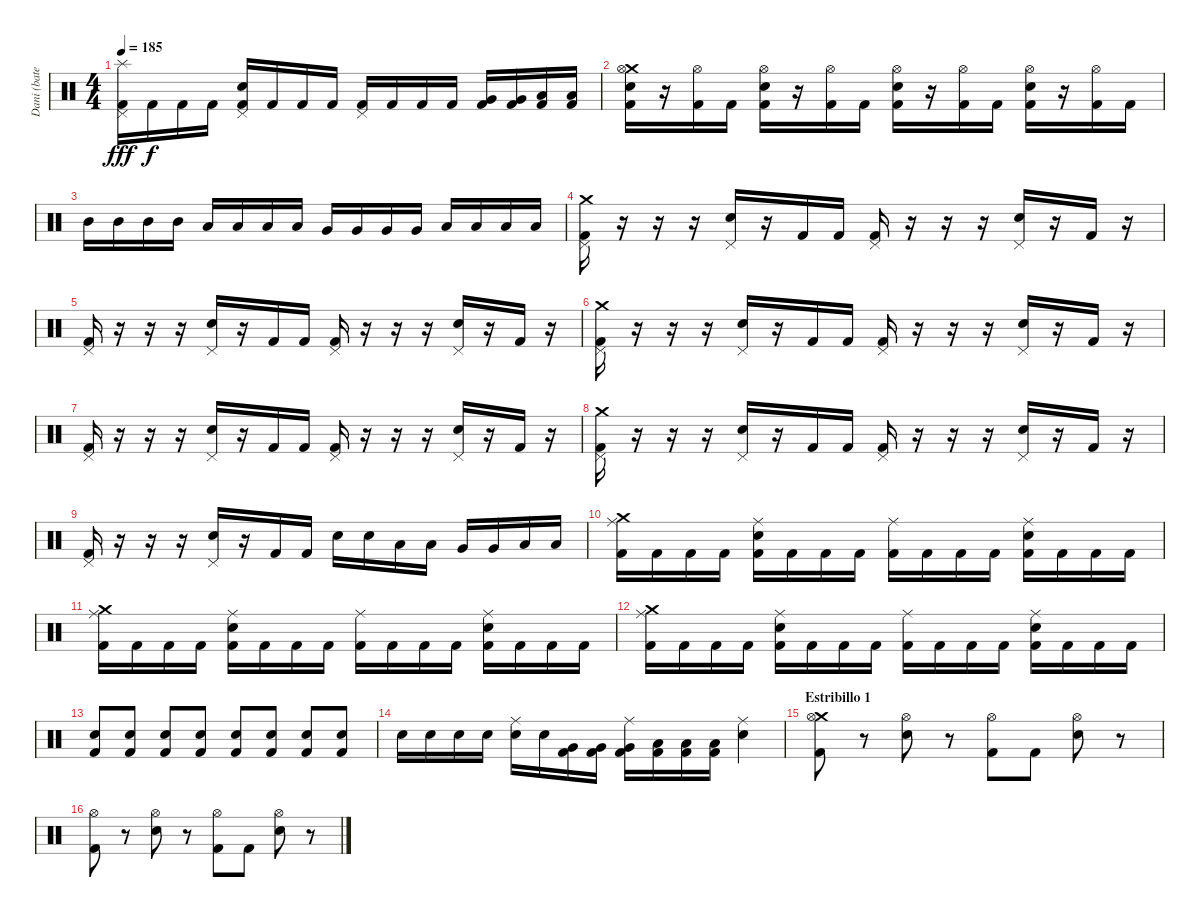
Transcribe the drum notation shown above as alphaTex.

\track ("Dani (batería)" "Dani (bate") {instrument percussion}
\staff {score}
\articulation defaults
\ts (4 4)
\tempo 185
\clef neutral
\ks c
("Splash (hit)" "Pedal Hi-Hat (hit)" "Kick (hit) 2").16{dy fff} "Kick (hit) 2".16{dy f} "Kick (hit) 2".16 "Kick (hit) 2".16 ("Pedal Hi-Hat (hit)" "Snare (hit) 2" "Kick (hit) 2").16 "Kick (hit) 2".16 "Kick (hit) 2".16 "Kick (hit) 2".16 ("Pedal Hi-Hat (hit)" "Kick (hit) 2").16 "Kick (hit) 2".16 "Kick (hit) 2".16 "Kick (hit) 2".16 ("Very Low Tom (hit)" "Kick (hit) 2").16 ("Very Low Tom (hit)" "Kick (hit) 2").16 ("Low Floor Tom (hit)" "Kick (hit) 2").16 ("Low Floor Tom (hit)" "Kick (hit) 2").16 |
("Crash medium (hit)" "Hi-Hat (open)" "Snare (hit) 2" "Kick (hit) 2").16 r.16 ("Hi-Hat (open)" "Kick (hit) 2").16 "Kick (hit) 2".16 ("Hi-Hat (open)" "Snare (hit) 2" "Kick (hit) 2").16 r.16 ("Hi-Hat (open)" "Kick (hit) 2").16 "Kick (hit) 2".16 ("Hi-Hat (open)" "Snare (hit) 2" "Kick (hit) 2").16 r.16 ("Hi-Hat (open)" "Kick (hit) 2").16 "Kick (hit) 2".16 ("Hi-Hat (open)" "Snare (hit) 2" "Kick (hit) 2").16 r.16 ("Hi-Hat (open)" "Kick (hit) 2").16 "Kick (hit) 2".16 |
"Mid Tom (hit)".16 "Mid Tom (hit)".16 "Mid Tom (hit)".16 "Mid Tom (hit)".16 "Low Tom (hit)".16 "Low Tom (hit)".16 "Low Tom (hit)".16 "Low Tom (hit)".16 "Very Low Tom (hit)".16 "Very Low Tom (hit)".16 "Very Low Tom (hit)".16 "Very Low Tom (hit)".16 "Low Floor Tom (hit)".16 "Low Floor Tom (hit)".16 "Low Floor Tom (hit)".16 "Low Floor Tom (hit)".16 |
("Crash medium (hit)" "Pedal Hi-Hat (hit)" "Kick (hit) 2").16 r.16 r.16 r.16 ("Pedal Hi-Hat (hit)" "Snare (hit) 2").16 r.16 "Kick (hit) 2".16 "Kick (hit) 2".16 ("Pedal Hi-Hat (hit)" "Kick (hit) 2").16 r.16 r.16 r.16 ("Pedal Hi-Hat (hit)" "Snare (hit) 2").16 r.16 "Kick (hit) 2".16 r.16 |
("Pedal Hi-Hat (hit)" "Kick (hit) 2").16 r.16 r.16 r.16 ("Pedal Hi-Hat (hit)" "Snare (hit) 2").16 r.16 "Kick (hit) 2".16 "Kick (hit) 2".16 ("Pedal Hi-Hat (hit)" "Kick (hit) 2").16 r.16 r.16 r.16 ("Pedal Hi-Hat (hit)" "Snare (hit) 2").16 r.16 "Kick (hit) 2".16 r.16 |
("Crash medium (hit)" "Pedal Hi-Hat (hit)" "Kick (hit) 2").16 r.16 r.16 r.16 ("Pedal Hi-Hat (hit)" "Snare (hit) 2").16 r.16 "Kick (hit) 2".16 "Kick (hit) 2".16 ("Pedal Hi-Hat (hit)" "Kick (hit) 2").16 r.16 r.16 r.16 ("Pedal Hi-Hat (hit)" "Snare (hit) 2").16 r.16 "Kick (hit) 2".16 r.16 |
("Pedal Hi-Hat (hit)" "Kick (hit) 2").16 r.16 r.16 r.16 ("Pedal Hi-Hat (hit)" "Snare (hit) 2").16 r.16 "Kick (hit) 2".16 "Kick (hit) 2".16 ("Pedal Hi-Hat (hit)" "Kick (hit) 2").16 r.16 r.16 r.16 ("Pedal Hi-Hat (hit)" "Snare (hit) 2").16 r.16 "Kick (hit) 2".16 r.16 |
("Crash medium (hit)" "Pedal Hi-Hat (hit)" "Kick (hit) 2").16 r.16 r.16 r.16 ("Pedal Hi-Hat (hit)" "Snare (hit) 2").16 r.16 "Kick (hit) 2".16 "Kick (hit) 2".16 ("Pedal Hi-Hat (hit)" "Kick (hit) 2").16 r.16 r.16 r.16 ("Pedal Hi-Hat (hit)" "Snare (hit) 2").16 r.16 "Kick (hit) 2".16 r.16 |
("Pedal Hi-Hat (hit)" "Kick (hit) 2").16 r.16 r.16 r.16 ("Pedal Hi-Hat (hit)" "Snare (hit) 2").16 r.16 "Kick (hit) 2".16 "Kick (hit) 2".16 "Snare (hit) 2".16 "Snare (hit) 2".16 "Low Tom (hit)".16 "Low Tom (hit)".16 "Very Low Tom (hit)".16 "Very Low Tom (hit)".16 "Low Floor Tom (hit)".16 "Low Floor Tom (hit)".16 |
("Crash medium (hit)" "Ride (middle)" "Kick (hit) 2").16 "Kick (hit) 2".16 "Kick (hit) 2".16 "Kick (hit) 2".16 ("Ride (middle)" "Snare (hit) 2" "Kick (hit) 2").16 "Kick (hit) 2".16 "Kick (hit) 2".16 "Kick (hit) 2".16 ("Ride (middle)" "Kick (hit) 2").16 "Kick (hit) 2".16 "Kick (hit) 2".16 "Kick (hit) 2".16 ("Ride (middle)" "Snare (hit) 2" "Kick (hit) 2").16 "Kick (hit) 2".16 "Kick (hit) 2".16 "Kick (hit) 2".16 |
("Crash medium (hit)" "Ride (middle)" "Kick (hit) 2").16 "Kick (hit) 2".16 "Kick (hit) 2".16 "Kick (hit) 2".16 ("Ride (middle)" "Snare (hit) 2" "Kick (hit) 2").16 "Kick (hit) 2".16 "Kick (hit) 2".16 "Kick (hit) 2".16 ("Ride (middle)" "Kick (hit) 2").16 "Kick (hit) 2".16 "Kick (hit) 2".16 "Kick (hit) 2".16 ("Ride (middle)" "Snare (hit) 2" "Kick (hit) 2").16 "Kick (hit) 2".16 "Kick (hit) 2".16 "Kick (hit) 2".16 |
("Crash medium (hit)" "Ride (middle)" "Kick (hit) 2").16 "Kick (hit) 2".16 "Kick (hit) 2".16 "Kick (hit) 2".16 ("Ride (middle)" "Snare (hit) 2" "Kick (hit) 2").16 "Kick (hit) 2".16 "Kick (hit) 2".16 "Kick (hit) 2".16 ("Ride (middle)" "Kick (hit) 2").16 "Kick (hit) 2".16 "Kick (hit) 2".16 "Kick (hit) 2".16 ("Ride (middle)" "Snare (hit) 2" "Kick (hit) 2").16 "Kick (hit) 2".16 "Kick (hit) 2".16 "Kick (hit) 2".16 |
("Snare (hit) 2" "Kick (hit) 2").8 ("Snare (hit) 2" "Kick (hit) 2").8 ("Snare (hit) 2" "Kick (hit) 2").8 ("Snare (hit) 2" "Kick (hit) 2").8 ("Snare (hit) 2" "Kick (hit) 2").8 ("Snare (hit) 2" "Kick (hit) 2").8 ("Snare (hit) 2" "Kick (hit) 2").8 ("Snare (hit) 2" "Kick (hit) 2").8 |
"Snare (hit) 2".16 "Snare (hit) 2".16 "Snare (hit) 2".16 "Snare (hit) 2".16 ("Ride (middle)" "Snare (hit) 2").16 "Snare (hit) 2".16 ("Very Low Tom (hit)" "Kick (hit) 2").16 ("Very Low Tom (hit)" "Kick (hit) 2").16 ("Ride (middle)" "Very Low Tom (hit)" "Kick (hit) 2").16 ("Low Floor Tom (hit)" "Kick (hit) 2").16 ("Low Floor Tom (hit)" "Kick (hit) 2").16 ("Low Floor Tom (hit)" "Kick (hit) 2").16 ("Ride (middle)" "Snare (hit) 2").4 |
\section ("" "Estribillo 1")
("Crash medium (hit)" "Hi-Hat (open)" "Kick (hit) 2").8 r.8 ("Hi-Hat (open)" "Snare (hit) 2").8 r.8 ("Hi-Hat (open)" "Kick (hit) 2").8 "Kick (hit) 2".8 ("Hi-Hat (open)" "Snare (hit) 2").8 r.8 |
("Hi-Hat (open)" "Kick (hit) 2").8 r.8 ("Hi-Hat (open)" "Snare (hit) 2").8 r.8 ("Hi-Hat (open)" "Kick (hit) 2").8 "Kick (hit) 2".8 ("Hi-Hat (open)" "Snare (hit) 2").8 r.8
